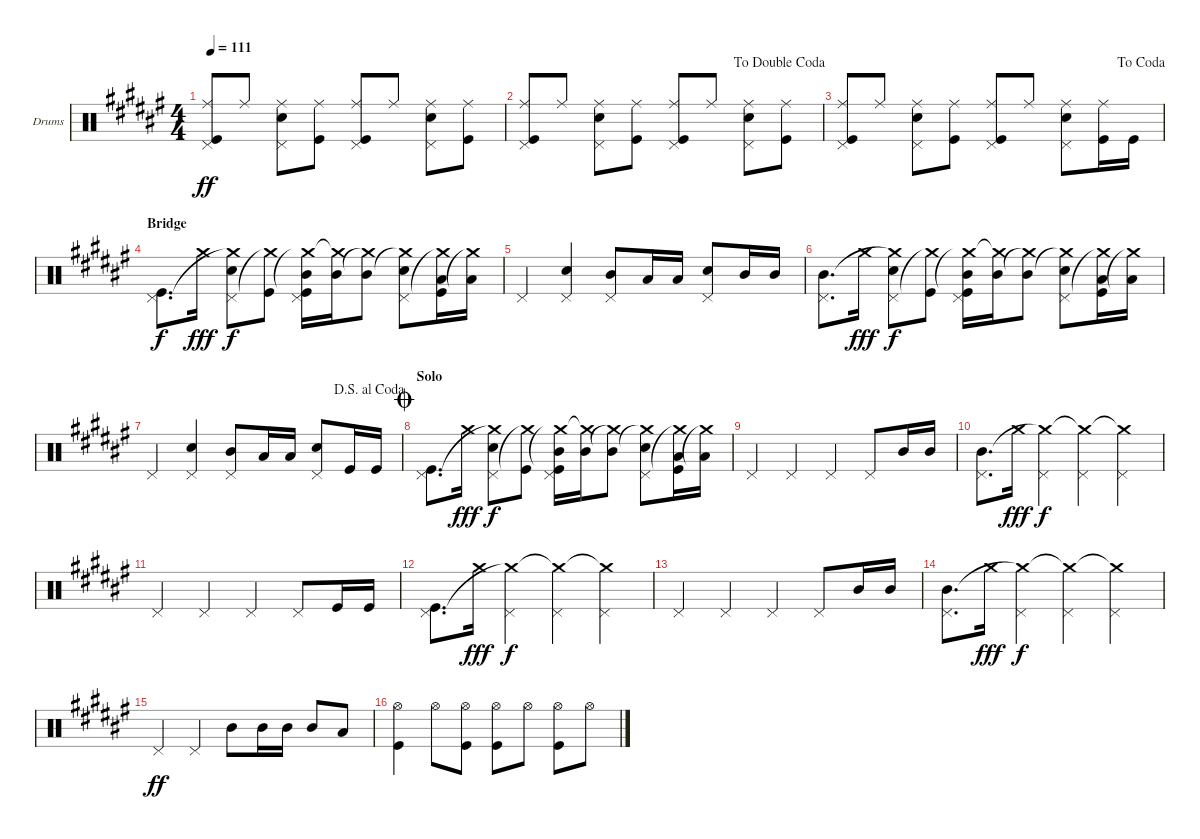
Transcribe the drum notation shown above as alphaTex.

\bracketExtendMode groupsimilarinstruments
\useSystemSignSeparator
\multiTrackTrackNamePolicy allsystems
\firstSystemTrackNameOrientation horizontal
\otherSystemsTrackNameOrientation horizontal
\track ("Drums" "Drums") {instrument percussion}
\staff {score}
\articulation defaults
\ts (4 4)
\tempo 111
\clef neutral
\ks f#
("Kick (hit)" "Ride (middle)" "Pedal Hi-Hat (hit)").8{dy ff} "Ride (middle)".8 ("Snare (hit) 2" "Ride (middle)" "Pedal Hi-Hat (hit)").8 ("Kick (hit)" "Ride (middle)").8 ("Kick (hit)" "Ride (middle)" "Pedal Hi-Hat (hit)").8 "Ride (middle)".8 ("Snare (hit) 2" "Ride (middle)" "Pedal Hi-Hat (hit)").8 ("Kick (hit)" "Ride (middle)").8 |
\jump dadoublecoda
("Kick (hit)" "Ride (middle)" "Pedal Hi-Hat (hit)").8 "Ride (middle)".8 ("Snare (hit) 2" "Ride (middle)" "Pedal Hi-Hat (hit)").8 ("Kick (hit)" "Ride (middle)").8 ("Kick (hit)" "Ride (middle)" "Pedal Hi-Hat (hit)").8 "Ride (middle)".8 ("Snare (hit) 2" "Ride (middle)" "Pedal Hi-Hat (hit)").8 ("Kick (hit)" "Ride (middle)").8 |
\jump dacoda
("Kick (hit)" "Ride (middle)" "Pedal Hi-Hat (hit)").8 "Ride (middle)".8 ("Snare (hit) 2" "Ride (middle)" "Pedal Hi-Hat (hit)").8 ("Kick (hit)" "Ride (middle)").8 ("Kick (hit)" "Ride (middle)" "Pedal Hi-Hat (hit)").8 "Ride (middle)".8 ("Snare (hit) 2" "Ride (middle)" "Pedal Hi-Hat (hit)").8 ("Kick (hit)" "Ride (middle)").16 "Kick (hit)".16 |
\section ("" "Bridge")
("Kick (hit)" "Pedal Hi-Hat (hit)").8{d dy f} "Crash medium (hit)".16{dy fff} ("Pedal Hi-Hat (hit)" "Crash medium (hit)"{t} "Snare (hit) 2").8{dy f} ("Crash medium (hit)"{t} "Kick (hit)").8 ("Pedal Hi-Hat (hit)" "Crash medium (hit)"{t} "Kick (hit)" "Mid Tom (hit)").16 ("Mid Tom (hit)" "Crash medium (hit)"{t}).16 ("Crash medium (hit)"{t} "Mid Tom (hit)").8 ("Pedal Hi-Hat (hit)" "Crash medium (hit)"{t} "Snare (hit) 2").8 ("Crash medium (hit)"{t} "Kick (hit)" "Low Tom (hit)").16 ("Low Tom (hit)" "Crash medium (hit)"{t}).16 |
"Pedal Hi-Hat (hit)".4 ("Pedal Hi-Hat (hit)" "Snare (hit) 2").4 ("Pedal Hi-Hat (hit)" "Mid Tom (hit)").8 "Low Tom (hit)".16 "Low Tom (hit)".16 ("Pedal Hi-Hat (hit)" "Snare (hit) 2").8 "Mid Tom (hit)".16 "Mid Tom (hit)".16 |
("Pedal Hi-Hat (hit)" "Mid Tom (hit)").8{d} "Crash medium (hit)".16{dy fff} ("Pedal Hi-Hat (hit)" "Crash medium (hit)"{t} "Snare (hit) 2").8{dy f} ("Crash medium (hit)"{t} "Kick (hit)").8 ("Pedal Hi-Hat (hit)" "Crash medium (hit)"{t} "Kick (hit)" "Mid Tom (hit)").16 ("Mid Tom (hit)" "Crash medium (hit)"{t}).16 ("Crash medium (hit)"{t} "Mid Tom (hit)").8 ("Pedal Hi-Hat (hit)" "Crash medium (hit)"{t} "Snare (hit) 2").8 ("Crash medium (hit)"{t} "Kick (hit)" "Low Tom (hit)").16 ("Low Tom (hit)" "Crash medium (hit)"{t}).16 |
\jump dalsegnoalcoda "Pedal Hi-Hat (hit)".4
("Pedal Hi-Hat (hit)" "Snare (hit) 2").4 ("Pedal Hi-Hat (hit)" "Mid Tom (hit)").8 "Low Tom (hit)".16 "Low Tom (hit)".16 ("Pedal Hi-Hat (hit)" "Snare (hit) 2").8 "Kick (hit)".16 "Kick (hit)".16 |
\section ("" "Solo")
\jump coda
("Kick (hit)" "Pedal Hi-Hat (hit)").8{d} "Crash medium (hit)".16{dy fff} ("Pedal Hi-Hat (hit)" "Crash medium (hit)"{t} "Snare (hit) 2").8{dy f} ("Crash medium (hit)"{t} "Kick (hit)").8 ("Pedal Hi-Hat (hit)" "Crash medium (hit)"{t} "Kick (hit)" "Mid Tom (hit)").16 ("Mid Tom (hit)" "Crash medium (hit)"{t}).16 ("Crash medium (hit)"{t} "Mid Tom (hit)").8 ("Pedal Hi-Hat (hit)" "Crash medium (hit)"{t} "Snare (hit) 2").8 ("Crash medium (hit)"{t} "Kick (hit)" "Low Tom (hit)").16 ("Low Tom (hit)" "Crash medium (hit)"{t}).16 |
"Pedal Hi-Hat (hit)".4 "Pedal Hi-Hat (hit)".4 "Pedal Hi-Hat (hit)".4 "Pedal Hi-Hat (hit)".8 "Mid Tom (hit)".16 "Mid Tom (hit)".16 |
("Pedal Hi-Hat (hit)" "Mid Tom (hit)").8{d} "Crash medium (hit)".16{dy fff} ("Pedal Hi-Hat (hit)" "Crash medium (hit)"{t}).4{dy f} ("Pedal Hi-Hat (hit)" "Crash medium (hit)"{t}).4 ("Pedal Hi-Hat (hit)" "Crash medium (hit)"{t}).4 |
"Pedal Hi-Hat (hit)".4 "Pedal Hi-Hat (hit)".4 "Pedal Hi-Hat (hit)".4 "Pedal Hi-Hat (hit)".8 "Kick (hit)".16 "Kick (hit)".16 |
("Kick (hit)" "Pedal Hi-Hat (hit)").8{d} "Crash medium (hit)".16{dy fff} ("Pedal Hi-Hat (hit)" "Crash medium (hit)"{t}).4{dy f} ("Pedal Hi-Hat (hit)" "Crash medium (hit)"{t}).4 ("Pedal Hi-Hat (hit)" "Crash medium (hit)"{t}).4 |
"Pedal Hi-Hat (hit)".4 "Pedal Hi-Hat (hit)".4 "Pedal Hi-Hat (hit)".4 "Pedal Hi-Hat (hit)".8 "Mid Tom (hit)".16 "Mid Tom (hit)".16 |
("Pedal Hi-Hat (hit)" "Mid Tom (hit)").8{d} "Crash medium (hit)".16{dy fff} ("Pedal Hi-Hat (hit)" "Crash medium (hit)"{t}).4{dy f} ("Pedal Hi-Hat (hit)" "Crash medium (hit)"{t}).4 ("Pedal Hi-Hat (hit)" "Crash medium (hit)"{t}).4 |
"Pedal Hi-Hat (hit)".4{dy ff} "Pedal Hi-Hat (hit)".4 "Mid Tom (hit)".8 "Mid Tom (hit)".16 "Mid Tom (hit)".16 "Mid Tom (hit)".8 "Low Tom (hit)".8 |
("Kick (hit)" "Hi-Hat (open)").4 "Hi-Hat (open)".8 ("Hi-Hat (open)" "Kick (hit)").8 ("Hi-Hat (open)" "Kick (hit)").8 "Hi-Hat (open)".8 ("Hi-Hat (open)" "Kick (hit)").8 "Hi-Hat (open)".8
